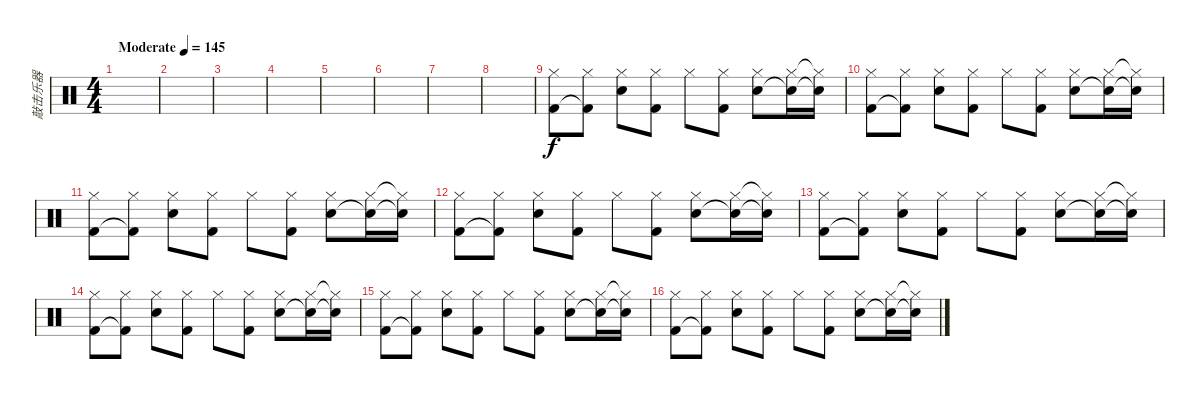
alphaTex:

\track ("敲击乐器" "敲击乐器") {instrument percussion}
\staff {score}
\articulation defaults
\ts (4 4)
\tempo (145 "Moderate")
\clef neutral
\ks c
|
|
|
|
|
|
|
|
("Hi-Hat (closed)" "Kick (hit) 2").8 ("Hi-Hat (closed)" "Kick (hit) 2"{t}).8 ("Hi-Hat (closed)" "Snare (hit) 2").8 ("Hi-Hat (closed)" "Kick (hit) 2").8 "Hi-Hat (closed)".8 ("Hi-Hat (closed)" "Kick (hit) 2").8 ("Hi-Hat (closed)" "Snare (hit) 2").8 ("Hi-Hat (closed)" "Snare (hit) 2"{t}).16 ("Hi-Hat (closed)"{t} "Snare (hit) 2"{t}).16 |
("Hi-Hat (closed)" "Kick (hit) 2").8 ("Hi-Hat (closed)" "Kick (hit) 2"{t}).8 ("Hi-Hat (closed)" "Snare (hit) 2").8 ("Hi-Hat (closed)" "Kick (hit) 2").8 "Hi-Hat (closed)".8 ("Hi-Hat (closed)" "Kick (hit) 2").8 ("Hi-Hat (closed)" "Snare (hit) 2").8 ("Hi-Hat (closed)" "Snare (hit) 2"{t}).16 ("Hi-Hat (closed)"{t} "Snare (hit) 2"{t}).16 |
("Hi-Hat (closed)" "Kick (hit) 2").8 ("Hi-Hat (closed)" "Kick (hit) 2"{t}).8 ("Hi-Hat (closed)" "Snare (hit) 2").8 ("Hi-Hat (closed)" "Kick (hit) 2").8 "Hi-Hat (closed)".8 ("Hi-Hat (closed)" "Kick (hit) 2").8 ("Hi-Hat (closed)" "Snare (hit) 2").8 ("Hi-Hat (closed)" "Snare (hit) 2"{t}).16 ("Hi-Hat (closed)"{t} "Snare (hit) 2"{t}).16 |
("Hi-Hat (closed)" "Kick (hit) 2").8 ("Hi-Hat (closed)" "Kick (hit) 2"{t}).8 ("Hi-Hat (closed)" "Snare (hit) 2").8 ("Hi-Hat (closed)" "Kick (hit) 2").8 "Hi-Hat (closed)".8 ("Hi-Hat (closed)" "Kick (hit) 2").8 ("Hi-Hat (closed)" "Snare (hit) 2").8 ("Hi-Hat (closed)" "Snare (hit) 2"{t}).16 ("Hi-Hat (closed)"{t} "Snare (hit) 2"{t}).16 |
("Hi-Hat (closed)" "Kick (hit) 2").8 ("Hi-Hat (closed)" "Kick (hit) 2"{t}).8 ("Hi-Hat (closed)" "Snare (hit) 2").8 ("Hi-Hat (closed)" "Kick (hit) 2").8 "Hi-Hat (closed)".8 ("Hi-Hat (closed)" "Kick (hit) 2").8 ("Hi-Hat (closed)" "Snare (hit) 2").8 ("Hi-Hat (closed)" "Snare (hit) 2"{t}).16 ("Hi-Hat (closed)"{t} "Snare (hit) 2"{t}).16 |
("Hi-Hat (closed)" "Kick (hit) 2").8 ("Hi-Hat (closed)" "Kick (hit) 2"{t}).8 ("Hi-Hat (closed)" "Snare (hit) 2").8 ("Hi-Hat (closed)" "Kick (hit) 2").8 "Hi-Hat (closed)".8 ("Hi-Hat (closed)" "Kick (hit) 2").8 ("Hi-Hat (closed)" "Snare (hit) 2").8 ("Hi-Hat (closed)" "Snare (hit) 2"{t}).16 ("Hi-Hat (closed)"{t} "Snare (hit) 2"{t}).16 |
("Hi-Hat (closed)" "Kick (hit) 2").8 ("Hi-Hat (closed)" "Kick (hit) 2"{t}).8 ("Hi-Hat (closed)" "Snare (hit) 2").8 ("Hi-Hat (closed)" "Kick (hit) 2").8 "Hi-Hat (closed)".8 ("Hi-Hat (closed)" "Kick (hit) 2").8 ("Hi-Hat (closed)" "Snare (hit) 2").8 ("Hi-Hat (closed)" "Snare (hit) 2"{t}).16 ("Hi-Hat (closed)"{t} "Snare (hit) 2"{t}).16 |
("Hi-Hat (closed)" "Kick (hit) 2").8 ("Hi-Hat (closed)" "Kick (hit) 2"{t}).8 ("Hi-Hat (closed)" "Snare (hit) 2").8 ("Hi-Hat (closed)" "Kick (hit) 2").8 "Hi-Hat (closed)".8 ("Hi-Hat (closed)" "Kick (hit) 2").8 ("Hi-Hat (closed)" "Snare (hit) 2").8 ("Hi-Hat (closed)" "Snare (hit) 2"{t}).16 ("Hi-Hat (closed)"{t} "Snare (hit) 2"{t}).16
